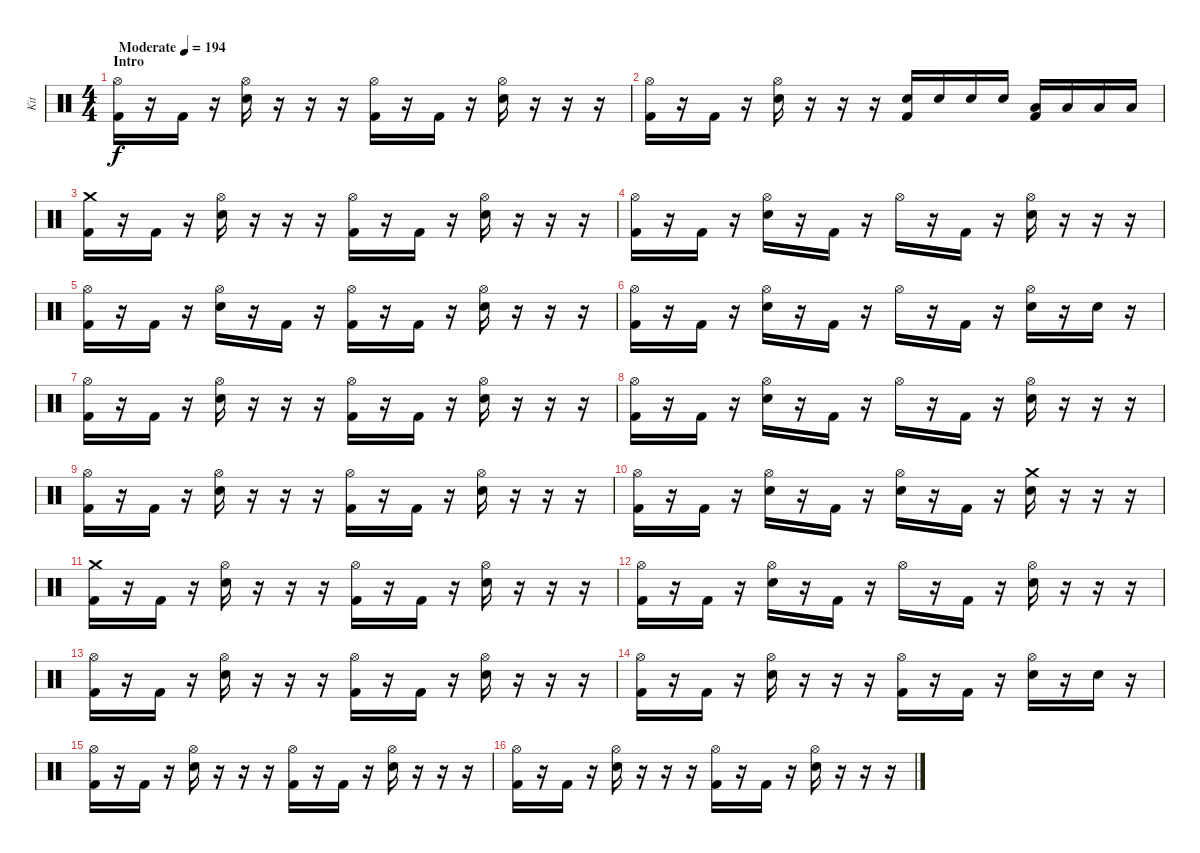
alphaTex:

\track ("Kit" "Kit") {instrument percussion}
\staff {score}
\articulation defaults
\ts (4 4)
\section ("" "Intro")
\tempo (194 "Moderate")
\clef neutral
\ks c
("Hi-Hat (open)" "Kick (hit) 2").16{dy f} r.16 "Kick (hit) 2".16 r.16 ("Hi-Hat (open)" "Electric Snare (hit)").16 r.16 r.16 r.16 ("Hi-Hat (open)" "Kick (hit) 2").16 r.16 "Kick (hit) 2".16 r.16 ("Hi-Hat (open)" "Electric Snare (hit)").16 r.16 r.16 r.16 |
("Hi-Hat (open)" "Kick (hit) 2").16 r.16 "Kick (hit) 2".16 r.16 ("Hi-Hat (open)" "Electric Snare (hit)").16 r.16 r.16 r.16 ("Electric Snare (hit)" "Kick (hit) 2").16 "Electric Snare (hit)".16 "Electric Snare (hit)".16 "Electric Snare (hit)".16 ("Low Tom (hit)" "Kick (hit) 2").16 "Low Tom (hit)".16 "Low Tom (hit)".16 "Low Tom (hit)".16 |
("Crash medium (hit)" "Kick (hit) 2").16 r.16 "Kick (hit) 2".16 r.16 ("Hi-Hat (open)" "Electric Snare (hit)").16 r.16 r.16 r.16 ("Hi-Hat (open)" "Kick (hit) 2").16 r.16 "Kick (hit) 2".16 r.16 ("Hi-Hat (open)" "Electric Snare (hit)").16 r.16 r.16 r.16 |
("Hi-Hat (open)" "Kick (hit) 2").16 r.16 "Kick (hit) 2".16 r.16 ("Hi-Hat (open)" "Electric Snare (hit)").16 r.16 "Kick (hit) 2".16 r.16 "Hi-Hat (open)".16 r.16 "Kick (hit) 2".16 r.16 ("Hi-Hat (open)" "Electric Snare (hit)").16 r.16 r.16 r.16 |
("Hi-Hat (open)" "Kick (hit) 2").16 r.16 "Kick (hit) 2".16 r.16 ("Hi-Hat (open)" "Electric Snare (hit)").16 r.16 "Kick (hit) 2".16 r.16 ("Hi-Hat (open)" "Kick (hit) 2").16 r.16 "Kick (hit) 2".16 r.16 ("Hi-Hat (open)" "Electric Snare (hit)").16 r.16 r.16 r.16 |
("Hi-Hat (open)" "Kick (hit) 2").16 r.16 "Kick (hit) 2".16 r.16 ("Hi-Hat (open)" "Electric Snare (hit)").16 r.16 "Kick (hit) 2".16 r.16 "Hi-Hat (open)".16 r.16 "Kick (hit) 2".16 r.16 ("Hi-Hat (open)" "Electric Snare (hit)").16 r.16 "Electric Snare (hit)".16 r.16 |
("Hi-Hat (open)" "Kick (hit) 2").16 r.16 "Kick (hit) 2".16 r.16 ("Hi-Hat (open)" "Electric Snare (hit)").16 r.16 r.16 r.16 ("Hi-Hat (open)" "Kick (hit) 2").16 r.16 "Kick (hit) 2".16 r.16 ("Hi-Hat (open)" "Electric Snare (hit)").16 r.16 r.16 r.16 |
("Hi-Hat (open)" "Kick (hit) 2").16 r.16 "Kick (hit) 2".16 r.16 ("Hi-Hat (open)" "Electric Snare (hit)").16 r.16 "Kick (hit) 2".16 r.16 "Hi-Hat (open)".16 r.16 "Kick (hit) 2".16 r.16 ("Hi-Hat (open)" "Electric Snare (hit)").16 r.16 r.16 r.16 |
("Hi-Hat (open)" "Kick (hit) 2").16 r.16 "Kick (hit) 2".16 r.16 ("Hi-Hat (open)" "Electric Snare (hit)").16 r.16 r.16 r.16 ("Hi-Hat (open)" "Kick (hit) 2").16 r.16 "Kick (hit) 2".16 r.16 ("Hi-Hat (open)" "Electric Snare (hit)").16 r.16 r.16 r.16 |
("Hi-Hat (open)" "Kick (hit) 2").16 r.16 "Kick (hit) 2".16 r.16 ("Hi-Hat (open)" "Electric Snare (hit)").16 r.16 "Kick (hit) 2".16 r.16 ("Hi-Hat (open)" "Electric Snare (hit)").16 r.16 "Kick (hit) 2".16 r.16 ("Crash medium (hit)" "Electric Snare (hit)").16 r.16 r.16 r.16 |
("Crash medium (hit)" "Kick (hit) 2").16 r.16 "Kick (hit) 2".16 r.16 ("Hi-Hat (open)" "Electric Snare (hit)").16 r.16 r.16 r.16 ("Hi-Hat (open)" "Kick (hit) 2").16 r.16 "Kick (hit) 2".16 r.16 ("Hi-Hat (open)" "Electric Snare (hit)").16 r.16 r.16 r.16 |
("Hi-Hat (open)" "Kick (hit) 2").16 r.16 "Kick (hit) 2".16 r.16 ("Hi-Hat (open)" "Electric Snare (hit)").16 r.16 "Kick (hit) 2".16 r.16 "Hi-Hat (open)".16 r.16 "Kick (hit) 2".16 r.16 ("Hi-Hat (open)" "Electric Snare (hit)").16 r.16 r.16 r.16 |
("Hi-Hat (open)" "Kick (hit) 2").16 r.16 "Kick (hit) 2".16 r.16 ("Hi-Hat (open)" "Electric Snare (hit)").16 r.16 r.16 r.16 ("Hi-Hat (open)" "Kick (hit) 2").16 r.16 "Kick (hit) 2".16 r.16 ("Hi-Hat (open)" "Electric Snare (hit)").16 r.16 r.16 r.16 |
("Hi-Hat (open)" "Kick (hit) 2").16 r.16 "Kick (hit) 2".16 r.16 ("Hi-Hat (open)" "Electric Snare (hit)").16 r.16 r.16 r.16 ("Hi-Hat (open)" "Kick (hit) 2").16 r.16 "Kick (hit) 2".16 r.16 ("Hi-Hat (open)" "Electric Snare (hit)").16 r.16 "Electric Snare (hit)".16 r.16 |
("Hi-Hat (open)" "Kick (hit) 2").16 r.16 "Kick (hit) 2".16 r.16 ("Hi-Hat (open)" "Electric Snare (hit)").16 r.16 r.16 r.16 ("Hi-Hat (open)" "Kick (hit) 2").16 r.16 "Kick (hit) 2".16 r.16 ("Hi-Hat (open)" "Electric Snare (hit)").16 r.16 r.16 r.16 |
("Hi-Hat (open)" "Kick (hit) 2").16 r.16 "Kick (hit) 2".16 r.16 ("Hi-Hat (open)" "Electric Snare (hit)").16 r.16 r.16 r.16 ("Hi-Hat (open)" "Kick (hit) 2").16 r.16 "Kick (hit) 2".16 r.16 ("Hi-Hat (open)" "Electric Snare (hit)").16 r.16 r.16 r.16
